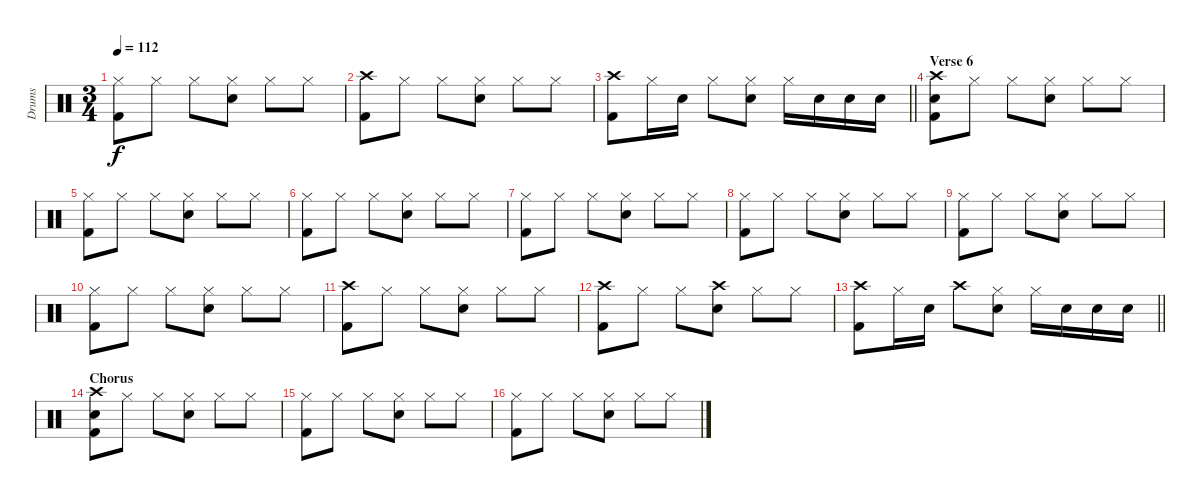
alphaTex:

\track ("Drums" "Drums") {instrument percussion}
\staff {score}
\articulation defaults
\ts (3 4)
\tempo 112
\clef neutral
\ks c
("Hi-Hat (closed)" "Kick (hit) 2").8{dy f} "Hi-Hat (closed)".8 "Hi-Hat (closed)".8 ("Hi-Hat (closed)" "Snare (hit) 2").8 "Hi-Hat (closed)".8 "Hi-Hat (closed)".8 |
("Crash high (hit)" "Kick (hit) 2").8 "Hi-Hat (closed)".8 "Hi-Hat (closed)".8 ("Hi-Hat (closed)" "Snare (hit) 2").8 "Hi-Hat (closed)".8 "Hi-Hat (closed)".8 |
\barLineRight lightlight
("Crash high (hit)" "Kick (hit) 2").8 "Hi-Hat (closed)".16 "Snare (hit) 2".16 "Hi-Hat (closed)".8 ("Hi-Hat (closed)" "Snare (hit) 2").8 "Hi-Hat (closed)".16 "Snare (hit) 2".16 "Snare (hit) 2".16 "Snare (hit) 2".16 |
\section ("" "Verse 6")
("Crash high (hit)" "Snare (hit) 2" "Kick (hit) 2").8 "Hi-Hat (closed)".8 "Hi-Hat (closed)".8 ("Hi-Hat (closed)" "Snare (hit) 2").8 "Hi-Hat (closed)".8 "Hi-Hat (closed)".8 |
("Hi-Hat (closed)" "Kick (hit) 2").8 "Hi-Hat (closed)".8 "Hi-Hat (closed)".8 ("Hi-Hat (closed)" "Snare (hit) 2").8 "Hi-Hat (closed)".8 "Hi-Hat (closed)".8 |
("Hi-Hat (closed)" "Kick (hit) 2").8 "Hi-Hat (closed)".8 "Hi-Hat (closed)".8 ("Hi-Hat (closed)" "Snare (hit) 2").8 "Hi-Hat (closed)".8 "Hi-Hat (closed)".8 |
("Hi-Hat (closed)" "Kick (hit) 2").8 "Hi-Hat (closed)".8 "Hi-Hat (closed)".8 ("Hi-Hat (closed)" "Snare (hit) 2").8 "Hi-Hat (closed)".8 "Hi-Hat (closed)".8 |
("Hi-Hat (closed)" "Kick (hit) 2").8 "Hi-Hat (closed)".8 "Hi-Hat (closed)".8 ("Hi-Hat (closed)" "Snare (hit) 2").8 "Hi-Hat (closed)".8 "Hi-Hat (closed)".8 |
("Hi-Hat (closed)" "Kick (hit) 2").8 "Hi-Hat (closed)".8 "Hi-Hat (closed)".8 ("Hi-Hat (closed)" "Snare (hit) 2").8 "Hi-Hat (closed)".8 "Hi-Hat (closed)".8 |
("Hi-Hat (closed)" "Kick (hit) 2").8 "Hi-Hat (closed)".8 "Hi-Hat (closed)".8 ("Hi-Hat (closed)" "Snare (hit) 2").8 "Hi-Hat (closed)".8 "Hi-Hat (closed)".8 |
("Crash high (hit)" "Kick (hit) 2").8 "Hi-Hat (closed)".8 "Hi-Hat (closed)".8 ("Hi-Hat (closed)" "Snare (hit) 2").8 "Hi-Hat (closed)".8 "Hi-Hat (closed)".8 |
("Crash high (hit)" "Kick (hit) 2").8 "Hi-Hat (closed)".8 "Hi-Hat (closed)".8 ("Crash high (hit)" "Snare (hit) 2").8 "Hi-Hat (closed)".8 "Hi-Hat (closed)".8 |
\barLineRight lightlight
("Crash high (hit)" "Kick (hit) 2").8 "Hi-Hat (closed)".16 "Snare (hit) 2".16 "Crash high (hit)".8 ("Hi-Hat (closed)" "Snare (hit) 2").8 "Hi-Hat (closed)".16 "Snare (hit) 2".16 "Snare (hit) 2".16 "Snare (hit) 2".16 |
\section ("" "Chorus")
("Crash high (hit)" "Snare (hit) 2" "Kick (hit) 2").8 "Hi-Hat (closed)".8 "Hi-Hat (closed)".8 ("Hi-Hat (closed)" "Snare (hit) 2").8 "Hi-Hat (closed)".8 "Hi-Hat (closed)".8 |
("Hi-Hat (closed)" "Kick (hit) 2").8 "Hi-Hat (closed)".8 "Hi-Hat (closed)".8 ("Hi-Hat (closed)" "Snare (hit) 2").8 "Hi-Hat (closed)".8 "Hi-Hat (closed)".8 |
("Hi-Hat (closed)" "Kick (hit) 2").8 "Hi-Hat (closed)".8 "Hi-Hat (closed)".8 ("Hi-Hat (closed)" "Snare (hit) 2").8 "Hi-Hat (closed)".8 "Hi-Hat (closed)".8
